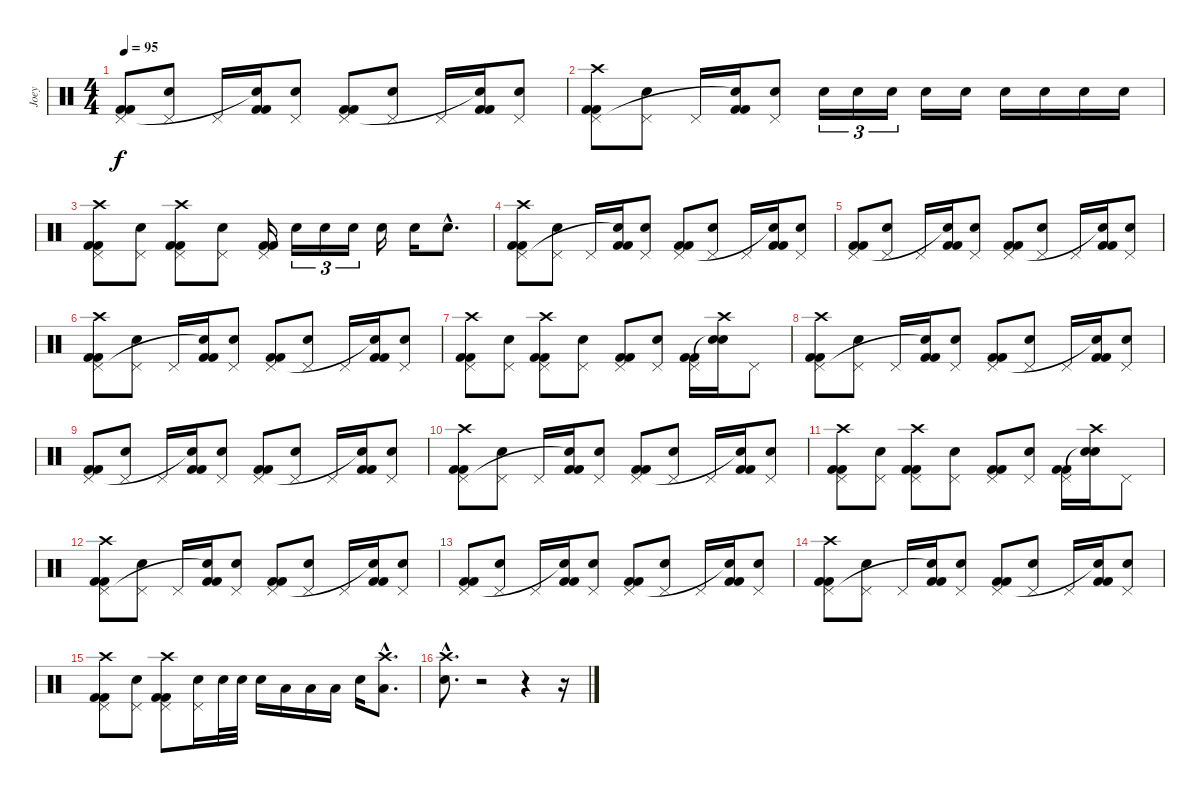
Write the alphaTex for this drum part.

\track ("Joey" "Joey") {instrument percussion}
\staff {score}
\articulation defaults
\ts (4 4)
\tempo 95
\clef neutral
\ks c
("Kick (hit) 2" "Kick (hit) 2" "Pedal Hi-Hat (hit)").8{dy f} ("Electric Snare (hit)" "Pedal Hi-Hat (hit)").8 "Pedal Hi-Hat (hit)".16 ("Kick (hit) 2" "Kick (hit) 2" "Snare (hit)"{t}).16 ("Electric Snare (hit)" "Pedal Hi-Hat (hit)").8 ("Kick (hit) 2" "Kick (hit) 2" "Pedal Hi-Hat (hit)").8 ("Electric Snare (hit)" "Pedal Hi-Hat (hit)").8 "Pedal Hi-Hat (hit)".16 ("Kick (hit) 2" "Kick (hit) 2" "Snare (hit)"{t}).16 ("Electric Snare (hit)" "Pedal Hi-Hat (hit)").8 |
("Kick (hit) 2" "Kick (hit) 2" "Pedal Hi-Hat (hit)" "Crash high (hit)").8 ("Electric Snare (hit)" "Pedal Hi-Hat (hit)").8 "Pedal Hi-Hat (hit)".16 ("Kick (hit) 2" "Kick (hit) 2" "Snare (hit)"{t}).16 ("Electric Snare (hit)" "Pedal Hi-Hat (hit)").8 "Electric Snare (hit)".16{tu (3 2)} "Electric Snare (hit)".16{tu (3 2)} "Electric Snare (hit)".16{tu (3 2)} "Electric Snare (hit)".16 "Electric Snare (hit)".16 "Electric Snare (hit)".16 "Electric Snare (hit)".16 "Electric Snare (hit)".16 "Electric Snare (hit)".16 |
("Kick (hit) 2" "Kick (hit) 2" "Crash high (hit)" "Pedal Hi-Hat (hit)").8 ("Electric Snare (hit)" "Pedal Hi-Hat (hit)").8 ("Kick (hit) 2" "Kick (hit) 2" "Crash high (hit)" "Pedal Hi-Hat (hit)").8 ("Electric Snare (hit)" "Pedal Hi-Hat (hit)").8 ("Kick (hit) 2" "Kick (hit) 2" "Pedal Hi-Hat (hit)").16 "Electric Snare (hit)".16{tu (3 2)} "Electric Snare (hit)".16{tu (3 2)} "Electric Snare (hit)".16{tu (3 2)} "Electric Snare (hit)".16 "Electric Snare (hit)".16 "Electric Snare (hit)"{hac}.8{d} |
("Kick (hit) 2" "Kick (hit) 2" "Pedal Hi-Hat (hit)" "Crash high (hit)").8 ("Electric Snare (hit)" "Pedal Hi-Hat (hit)").8 "Pedal Hi-Hat (hit)".16 ("Kick (hit) 2" "Kick (hit) 2" "Snare (hit)"{t}).16 ("Electric Snare (hit)" "Pedal Hi-Hat (hit)").8 ("Kick (hit) 2" "Kick (hit) 2" "Pedal Hi-Hat (hit)").8 ("Electric Snare (hit)" "Pedal Hi-Hat (hit)").8 "Pedal Hi-Hat (hit)".16 ("Kick (hit) 2" "Kick (hit) 2" "Snare (hit)"{t}).16 ("Electric Snare (hit)" "Pedal Hi-Hat (hit)").8 |
("Kick (hit) 2" "Kick (hit) 2" "Pedal Hi-Hat (hit)").8 ("Electric Snare (hit)" "Pedal Hi-Hat (hit)").8 "Pedal Hi-Hat (hit)".16 ("Kick (hit) 2" "Kick (hit) 2" "Snare (hit)"{t}).16 ("Electric Snare (hit)" "Pedal Hi-Hat (hit)").8 ("Kick (hit) 2" "Kick (hit) 2" "Pedal Hi-Hat (hit)").8 ("Electric Snare (hit)" "Pedal Hi-Hat (hit)").8 "Pedal Hi-Hat (hit)".16 ("Kick (hit) 2" "Kick (hit) 2" "Snare (hit)"{t}).16 ("Electric Snare (hit)" "Pedal Hi-Hat (hit)").8 |
("Kick (hit) 2" "Kick (hit) 2" "Pedal Hi-Hat (hit)" "Crash high (hit)").8 ("Electric Snare (hit)" "Pedal Hi-Hat (hit)").8 "Pedal Hi-Hat (hit)".16 ("Kick (hit) 2" "Kick (hit) 2" "Snare (hit)"{t}).16 ("Electric Snare (hit)" "Pedal Hi-Hat (hit)").8 ("Kick (hit) 2" "Kick (hit) 2" "Pedal Hi-Hat (hit)").8 ("Electric Snare (hit)" "Pedal Hi-Hat (hit)").8 "Pedal Hi-Hat (hit)".16 ("Kick (hit) 2" "Kick (hit) 2" "Snare (hit)"{t}).16 ("Electric Snare (hit)" "Pedal Hi-Hat (hit)").8 |
("Kick (hit) 2" "Kick (hit) 2" "Crash high (hit)" "Pedal Hi-Hat (hit)").8 ("Electric Snare (hit)" "Pedal Hi-Hat (hit)").8 ("Kick (hit) 2" "Kick (hit) 2" "Crash high (hit)" "Pedal Hi-Hat (hit)").8 ("Electric Snare (hit)" "Pedal Hi-Hat (hit)").8 ("Kick (hit) 2" "Kick (hit) 2" "Pedal Hi-Hat (hit)").8 ("Electric Snare (hit)" "Pedal Hi-Hat (hit)").8 ("Kick (hit) 2" "Kick (hit) 2" "Pedal Hi-Hat (hit)").16 ("Electric Snare (hit)" "Crash high (hit)" "Snare (hit)"{t}).16 "Pedal Hi-Hat (hit)".8 |
("Kick (hit) 2" "Kick (hit) 2" "Pedal Hi-Hat (hit)" "Crash high (hit)").8 ("Electric Snare (hit)" "Pedal Hi-Hat (hit)").8 "Pedal Hi-Hat (hit)".16 ("Kick (hit) 2" "Kick (hit) 2" "Snare (hit)"{t}).16 ("Electric Snare (hit)" "Pedal Hi-Hat (hit)").8 ("Kick (hit) 2" "Kick (hit) 2" "Pedal Hi-Hat (hit)").8 ("Electric Snare (hit)" "Pedal Hi-Hat (hit)").8 "Pedal Hi-Hat (hit)".16 ("Kick (hit) 2" "Kick (hit) 2" "Snare (hit)"{t}).16 ("Electric Snare (hit)" "Pedal Hi-Hat (hit)").8 |
("Kick (hit) 2" "Kick (hit) 2" "Pedal Hi-Hat (hit)").8 ("Electric Snare (hit)" "Pedal Hi-Hat (hit)").8 "Pedal Hi-Hat (hit)".16 ("Kick (hit) 2" "Kick (hit) 2" "Snare (hit)"{t}).16 ("Electric Snare (hit)" "Pedal Hi-Hat (hit)").8 ("Kick (hit) 2" "Kick (hit) 2" "Pedal Hi-Hat (hit)").8 ("Electric Snare (hit)" "Pedal Hi-Hat (hit)").8 "Pedal Hi-Hat (hit)".16 ("Kick (hit) 2" "Kick (hit) 2" "Snare (hit)"{t}).16 ("Electric Snare (hit)" "Pedal Hi-Hat (hit)").8 |
("Kick (hit) 2" "Kick (hit) 2" "Pedal Hi-Hat (hit)" "Crash high (hit)").8 ("Electric Snare (hit)" "Pedal Hi-Hat (hit)").8 "Pedal Hi-Hat (hit)".16 ("Kick (hit) 2" "Kick (hit) 2" "Snare (hit)"{t}).16 ("Electric Snare (hit)" "Pedal Hi-Hat (hit)").8 ("Kick (hit) 2" "Kick (hit) 2" "Pedal Hi-Hat (hit)").8 ("Electric Snare (hit)" "Pedal Hi-Hat (hit)").8 "Pedal Hi-Hat (hit)".16 ("Kick (hit) 2" "Kick (hit) 2" "Snare (hit)"{t}).16 ("Electric Snare (hit)" "Pedal Hi-Hat (hit)").8 |
("Kick (hit) 2" "Kick (hit) 2" "Crash high (hit)" "Pedal Hi-Hat (hit)").8 ("Electric Snare (hit)" "Pedal Hi-Hat (hit)").8 ("Kick (hit) 2" "Kick (hit) 2" "Crash high (hit)" "Pedal Hi-Hat (hit)").8 ("Electric Snare (hit)" "Pedal Hi-Hat (hit)").8 ("Kick (hit) 2" "Kick (hit) 2" "Pedal Hi-Hat (hit)").8 ("Electric Snare (hit)" "Pedal Hi-Hat (hit)").8 ("Kick (hit) 2" "Kick (hit) 2" "Pedal Hi-Hat (hit)").16 ("Electric Snare (hit)" "Crash high (hit)" "Snare (hit)"{t}).16 "Pedal Hi-Hat (hit)".8 |
("Kick (hit) 2" "Kick (hit) 2" "Pedal Hi-Hat (hit)" "Crash high (hit)").8 ("Electric Snare (hit)" "Pedal Hi-Hat (hit)").8 "Pedal Hi-Hat (hit)".16 ("Kick (hit) 2" "Kick (hit) 2" "Snare (hit)"{t}).16 ("Electric Snare (hit)" "Pedal Hi-Hat (hit)").8 ("Kick (hit) 2" "Kick (hit) 2" "Pedal Hi-Hat (hit)").8 ("Electric Snare (hit)" "Pedal Hi-Hat (hit)").8 "Pedal Hi-Hat (hit)".16 ("Kick (hit) 2" "Kick (hit) 2" "Snare (hit)"{t}).16 ("Electric Snare (hit)" "Pedal Hi-Hat (hit)").8 |
("Kick (hit) 2" "Kick (hit) 2" "Pedal Hi-Hat (hit)").8 ("Electric Snare (hit)" "Pedal Hi-Hat (hit)").8 "Pedal Hi-Hat (hit)".16 ("Kick (hit) 2" "Kick (hit) 2" "Snare (hit)"{t}).16 ("Electric Snare (hit)" "Pedal Hi-Hat (hit)").8 ("Kick (hit) 2" "Kick (hit) 2" "Pedal Hi-Hat (hit)").8 ("Electric Snare (hit)" "Pedal Hi-Hat (hit)").8 "Pedal Hi-Hat (hit)".16 ("Kick (hit) 2" "Kick (hit) 2" "Snare (hit)"{t}).16 ("Electric Snare (hit)" "Pedal Hi-Hat (hit)").8 |
("Kick (hit) 2" "Kick (hit) 2" "Pedal Hi-Hat (hit)" "Crash high (hit)").8 ("Electric Snare (hit)" "Pedal Hi-Hat (hit)").8 "Pedal Hi-Hat (hit)".16 ("Kick (hit) 2" "Kick (hit) 2" "Snare (hit)"{t}).16 ("Electric Snare (hit)" "Pedal Hi-Hat (hit)").8 ("Kick (hit) 2" "Kick (hit) 2" "Pedal Hi-Hat (hit)").8 ("Electric Snare (hit)" "Pedal Hi-Hat (hit)").8 "Pedal Hi-Hat (hit)".16 ("Kick (hit) 2" "Kick (hit) 2" "Snare (hit)"{t}).16 ("Electric Snare (hit)" "Pedal Hi-Hat (hit)").8 |
("Kick (hit) 2" "Kick (hit) 2" "Crash high (hit)" "Pedal Hi-Hat (hit)").8 ("Electric Snare (hit)" "Pedal Hi-Hat (hit)").8 ("Kick (hit) 2" "Kick (hit) 2" "Crash high (hit)" "Pedal Hi-Hat (hit)").8 ("Electric Snare (hit)" "Pedal Hi-Hat (hit)").16 "Electric Snare (hit)".32 "Electric Snare (hit)".32 "Electric Snare (hit)".16 "Low Tom (hit)".16 "Low Tom (hit)".16 "Low Tom (hit)".16 "Electric Snare (hit)".16 ("Low Tom (hit)"{hac} "Crash high (hit)"{hac}).8{d} |
("Electric Snare (hit)"{hac} "Crash high (hit)"{hac}).8{d} r.2 r.4 r.16
